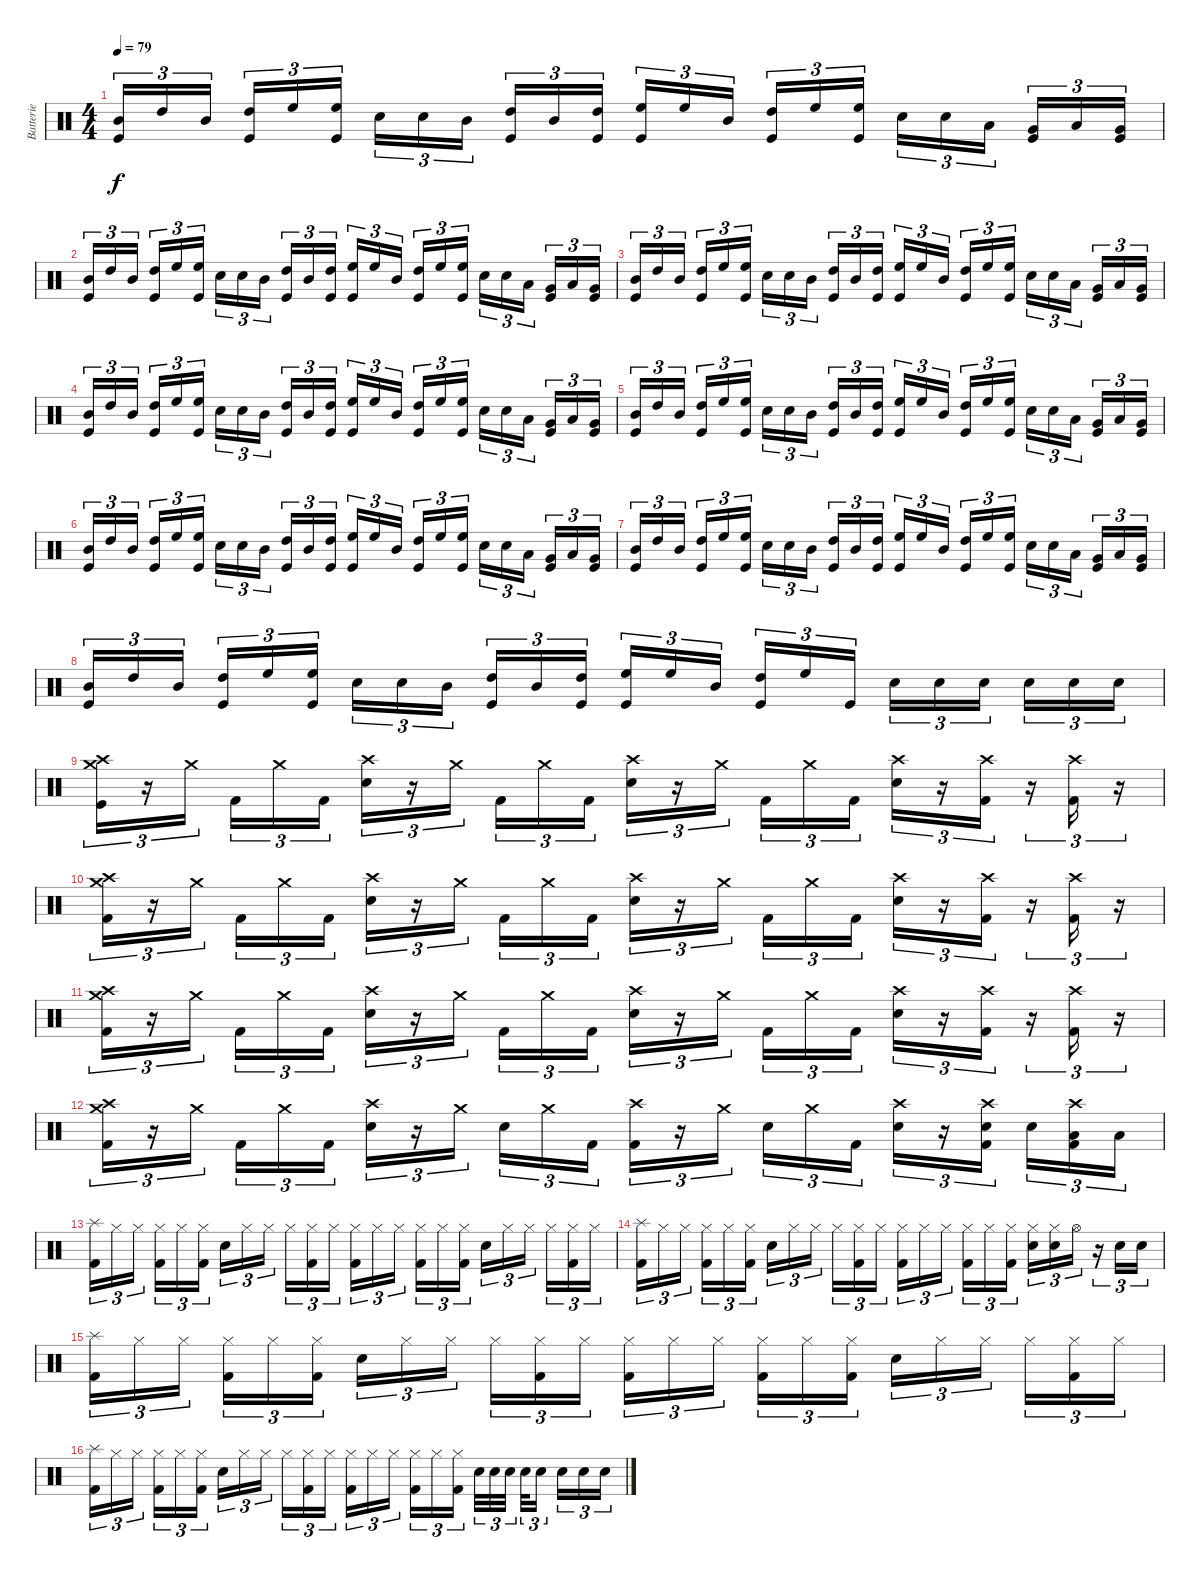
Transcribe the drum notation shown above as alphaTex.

\track ("Batterie" "Batterie") {instrument percussion}
\staff {score}
\articulation defaults
\ts (4 4)
\tempo 79
\clef neutral
\ks c
("Mid Tom (hit)" "Kick (hit)").16{tu (3 2) dy f} "High Tom (hit)".16{tu (3 2)} "Mid Tom (hit)".16{tu (3 2)} ("High Tom (hit)" "Kick (hit)").16{tu (3 2)} "High Floor Tom (hit)".16{tu (3 2)} ("High Floor Tom (hit)" "Kick (hit)").16{tu (3 2)} "Snare (hit) 2".16{tu (3 2)} "Snare (hit) 2".16{tu (3 2)} "Mid Tom (hit)".16{tu (3 2)} ("High Tom (hit)" "Kick (hit)").16{tu (3 2)} "Mid Tom (hit)".16{tu (3 2)} ("High Tom (hit)" "Kick (hit)").16{tu (3 2)} ("High Floor Tom (hit)" "Kick (hit)").16{tu (3 2)} "High Floor Tom (hit)".16{tu (3 2)} "Mid Tom (hit)".16{tu (3 2)} ("High Tom (hit)" "Kick (hit)").16{tu (3 2)} "High Floor Tom (hit)".16{tu (3 2)} ("High Floor Tom (hit)" "Kick (hit)").16{tu (3 2)} "Snare (hit) 2".16{tu (3 2)} "Snare (hit) 2".16{tu (3 2)} "Low Floor Tom (hit)".16{tu (3 2)} ("Very Low Tom (hit)" "Kick (hit)").16{tu (3 2)} "Low Floor Tom (hit)".16{tu (3 2)} ("Very Low Tom (hit)" "Kick (hit)").16{tu (3 2)} |
("Mid Tom (hit)" "Kick (hit)").16{tu (3 2)} "High Tom (hit)".16{tu (3 2)} "Mid Tom (hit)".16{tu (3 2)} ("High Tom (hit)" "Kick (hit)").16{tu (3 2)} "High Floor Tom (hit)".16{tu (3 2)} ("High Floor Tom (hit)" "Kick (hit)").16{tu (3 2)} "Snare (hit) 2".16{tu (3 2)} "Snare (hit) 2".16{tu (3 2)} "Mid Tom (hit)".16{tu (3 2)} ("High Tom (hit)" "Kick (hit)").16{tu (3 2)} "Mid Tom (hit)".16{tu (3 2)} ("High Tom (hit)" "Kick (hit)").16{tu (3 2)} ("High Floor Tom (hit)" "Kick (hit)").16{tu (3 2)} "High Floor Tom (hit)".16{tu (3 2)} "Mid Tom (hit)".16{tu (3 2)} ("High Tom (hit)" "Kick (hit)").16{tu (3 2)} "High Floor Tom (hit)".16{tu (3 2)} ("High Floor Tom (hit)" "Kick (hit)").16{tu (3 2)} "Snare (hit) 2".16{tu (3 2)} "Snare (hit) 2".16{tu (3 2)} "Low Floor Tom (hit)".16{tu (3 2)} ("Very Low Tom (hit)" "Kick (hit)").16{tu (3 2)} "Low Floor Tom (hit)".16{tu (3 2)} ("Very Low Tom (hit)" "Kick (hit)").16{tu (3 2)} |
("Mid Tom (hit)" "Kick (hit)").16{tu (3 2)} "High Tom (hit)".16{tu (3 2)} "Mid Tom (hit)".16{tu (3 2)} ("High Tom (hit)" "Kick (hit)").16{tu (3 2)} "High Floor Tom (hit)".16{tu (3 2)} ("High Floor Tom (hit)" "Kick (hit)").16{tu (3 2)} "Snare (hit) 2".16{tu (3 2)} "Snare (hit) 2".16{tu (3 2)} "Mid Tom (hit)".16{tu (3 2)} ("High Tom (hit)" "Kick (hit)").16{tu (3 2)} "Mid Tom (hit)".16{tu (3 2)} ("High Tom (hit)" "Kick (hit)").16{tu (3 2)} ("High Floor Tom (hit)" "Kick (hit)").16{tu (3 2)} "High Floor Tom (hit)".16{tu (3 2)} "Mid Tom (hit)".16{tu (3 2)} ("High Tom (hit)" "Kick (hit)").16{tu (3 2)} "High Floor Tom (hit)".16{tu (3 2)} ("High Floor Tom (hit)" "Kick (hit)").16{tu (3 2)} "Snare (hit) 2".16{tu (3 2)} "Snare (hit) 2".16{tu (3 2)} "Low Floor Tom (hit)".16{tu (3 2)} ("Very Low Tom (hit)" "Kick (hit)").16{tu (3 2)} "Low Floor Tom (hit)".16{tu (3 2)} ("Very Low Tom (hit)" "Kick (hit)").16{tu (3 2)} |
("Mid Tom (hit)" "Kick (hit)").16{tu (3 2)} "High Tom (hit)".16{tu (3 2)} "Mid Tom (hit)".16{tu (3 2)} ("High Tom (hit)" "Kick (hit)").16{tu (3 2)} "High Floor Tom (hit)".16{tu (3 2)} ("High Floor Tom (hit)" "Kick (hit)").16{tu (3 2)} "Snare (hit) 2".16{tu (3 2)} "Snare (hit) 2".16{tu (3 2)} "Mid Tom (hit)".16{tu (3 2)} ("High Tom (hit)" "Kick (hit)").16{tu (3 2)} "Mid Tom (hit)".16{tu (3 2)} ("High Tom (hit)" "Kick (hit)").16{tu (3 2)} ("High Floor Tom (hit)" "Kick (hit)").16{tu (3 2)} "High Floor Tom (hit)".16{tu (3 2)} "Mid Tom (hit)".16{tu (3 2)} ("High Tom (hit)" "Kick (hit)").16{tu (3 2)} "High Floor Tom (hit)".16{tu (3 2)} ("High Floor Tom (hit)" "Kick (hit)").16{tu (3 2)} "Snare (hit) 2".16{tu (3 2)} "Snare (hit) 2".16{tu (3 2)} "Low Floor Tom (hit)".16{tu (3 2)} ("Very Low Tom (hit)" "Kick (hit)").16{tu (3 2)} "Low Floor Tom (hit)".16{tu (3 2)} ("Very Low Tom (hit)" "Kick (hit)").16{tu (3 2)} |
("Mid Tom (hit)" "Kick (hit)").16{tu (3 2)} "High Tom (hit)".16{tu (3 2)} "Mid Tom (hit)".16{tu (3 2)} ("High Tom (hit)" "Kick (hit)").16{tu (3 2)} "High Floor Tom (hit)".16{tu (3 2)} ("High Floor Tom (hit)" "Kick (hit)").16{tu (3 2)} "Snare (hit) 2".16{tu (3 2)} "Snare (hit) 2".16{tu (3 2)} "Mid Tom (hit)".16{tu (3 2)} ("High Tom (hit)" "Kick (hit)").16{tu (3 2)} "Mid Tom (hit)".16{tu (3 2)} ("High Tom (hit)" "Kick (hit)").16{tu (3 2)} ("High Floor Tom (hit)" "Kick (hit)").16{tu (3 2)} "High Floor Tom (hit)".16{tu (3 2)} "Mid Tom (hit)".16{tu (3 2)} ("High Tom (hit)" "Kick (hit)").16{tu (3 2)} "High Floor Tom (hit)".16{tu (3 2)} ("High Floor Tom (hit)" "Kick (hit)").16{tu (3 2)} "Snare (hit) 2".16{tu (3 2)} "Snare (hit) 2".16{tu (3 2)} "Low Floor Tom (hit)".16{tu (3 2)} ("Very Low Tom (hit)" "Kick (hit)").16{tu (3 2)} "Low Floor Tom (hit)".16{tu (3 2)} ("Very Low Tom (hit)" "Kick (hit)").16{tu (3 2)} |
("Mid Tom (hit)" "Kick (hit)").16{tu (3 2)} "High Tom (hit)".16{tu (3 2)} "Mid Tom (hit)".16{tu (3 2)} ("High Tom (hit)" "Kick (hit)").16{tu (3 2)} "High Floor Tom (hit)".16{tu (3 2)} ("High Floor Tom (hit)" "Kick (hit)").16{tu (3 2)} "Snare (hit) 2".16{tu (3 2)} "Snare (hit) 2".16{tu (3 2)} "Mid Tom (hit)".16{tu (3 2)} ("High Tom (hit)" "Kick (hit)").16{tu (3 2)} "Mid Tom (hit)".16{tu (3 2)} ("High Tom (hit)" "Kick (hit)").16{tu (3 2)} ("High Floor Tom (hit)" "Kick (hit)").16{tu (3 2)} "High Floor Tom (hit)".16{tu (3 2)} "Mid Tom (hit)".16{tu (3 2)} ("High Tom (hit)" "Kick (hit)").16{tu (3 2)} "High Floor Tom (hit)".16{tu (3 2)} ("High Floor Tom (hit)" "Kick (hit)").16{tu (3 2)} "Snare (hit) 2".16{tu (3 2)} "Snare (hit) 2".16{tu (3 2)} "Low Floor Tom (hit)".16{tu (3 2)} ("Very Low Tom (hit)" "Kick (hit)").16{tu (3 2)} "Low Floor Tom (hit)".16{tu (3 2)} ("Very Low Tom (hit)" "Kick (hit)").16{tu (3 2)} |
("Mid Tom (hit)" "Kick (hit)").16{tu (3 2)} "High Tom (hit)".16{tu (3 2)} "Mid Tom (hit)".16{tu (3 2)} ("High Tom (hit)" "Kick (hit)").16{tu (3 2)} "High Floor Tom (hit)".16{tu (3 2)} ("High Floor Tom (hit)" "Kick (hit)").16{tu (3 2)} "Snare (hit) 2".16{tu (3 2)} "Snare (hit) 2".16{tu (3 2)} "Mid Tom (hit)".16{tu (3 2)} ("High Tom (hit)" "Kick (hit)").16{tu (3 2)} "Mid Tom (hit)".16{tu (3 2)} ("High Tom (hit)" "Kick (hit)").16{tu (3 2)} ("High Floor Tom (hit)" "Kick (hit)").16{tu (3 2)} "High Floor Tom (hit)".16{tu (3 2)} "Mid Tom (hit)".16{tu (3 2)} ("High Tom (hit)" "Kick (hit)").16{tu (3 2)} "High Floor Tom (hit)".16{tu (3 2)} ("High Floor Tom (hit)" "Kick (hit)").16{tu (3 2)} "Snare (hit) 2".16{tu (3 2)} "Snare (hit) 2".16{tu (3 2)} "Low Floor Tom (hit)".16{tu (3 2)} ("Very Low Tom (hit)" "Kick (hit)").16{tu (3 2)} "Low Floor Tom (hit)".16{tu (3 2)} ("Very Low Tom (hit)" "Kick (hit)").16{tu (3 2)} |
("Mid Tom (hit)" "Kick (hit)").16{tu (3 2)} "High Tom (hit)".16{tu (3 2)} "Mid Tom (hit)".16{tu (3 2)} ("High Tom (hit)" "Kick (hit)").16{tu (3 2)} "High Floor Tom (hit)".16{tu (3 2)} ("High Floor Tom (hit)" "Kick (hit)").16{tu (3 2)} "Snare (hit) 2".16{tu (3 2)} "Snare (hit) 2".16{tu (3 2)} "Mid Tom (hit)".16{tu (3 2)} ("High Tom (hit)" "Kick (hit)").16{tu (3 2)} "Mid Tom (hit)".16{tu (3 2)} ("High Tom (hit)" "Kick (hit)").16{tu (3 2)} ("High Floor Tom (hit)" "Kick (hit)").16{tu (3 2)} "High Floor Tom (hit)".16{tu (3 2)} "Mid Tom (hit)".16{tu (3 2)} ("High Tom (hit)" "Kick (hit)").16{tu (3 2)} "High Floor Tom (hit)".16{tu (3 2)} "Kick (hit)".16{tu (3 2)} "Snare (hit) 2".16{tu (3 2)} "Snare (hit) 2".16{tu (3 2)} "Snare (hit) 2".16{tu (3 2)} "Snare (hit) 2".16{tu (3 2)} "Snare (hit) 2".16{tu (3 2)} "Snare (hit) 2".16{tu (3 2)} |
("Crash high (hit)" "Crash medium (hit)" "Kick (hit)").16{tu (3 2)} r.16{tu (3 2)} "Crash medium (hit)".16{tu (3 2)} "Kick (hit) 2".16{tu (3 2)} "Crash medium (hit)".16{tu (3 2)} "Kick (hit) 2".16{tu (3 2)} ("Crash high (hit)" "Snare (hit) 2").16{tu (3 2)} r.16{tu (3 2)} "Crash medium (hit)".16{tu (3 2)} "Kick (hit) 2".16{tu (3 2)} "Crash medium (hit)".16{tu (3 2)} "Kick (hit) 2".16{tu (3 2)} ("Crash high (hit)" "Snare (hit) 2").16{tu (3 2)} r.16{tu (3 2)} "Crash medium (hit)".16{tu (3 2)} "Kick (hit) 2".16{tu (3 2)} "Crash medium (hit)".16{tu (3 2)} "Kick (hit) 2".16{tu (3 2)} ("Crash high (hit)" "Snare (hit) 2").16{tu (3 2)} r.16{tu (3 2)} ("Crash high (hit)" "Kick (hit) 2").16{tu (3 2)} r.16{tu (3 2)} ("Crash high (hit)" "Kick (hit) 2").16{tu (3 2)} r.16{tu (3 2)} |
("Crash high (hit)" "Crash medium (hit)" "Kick (hit) 2").16{tu (3 2)} r.16{tu (3 2)} "Crash medium (hit)".16{tu (3 2)} "Kick (hit) 2".16{tu (3 2)} "Crash medium (hit)".16{tu (3 2)} "Kick (hit) 2".16{tu (3 2)} ("Crash high (hit)" "Snare (hit) 2").16{tu (3 2)} r.16{tu (3 2)} "Crash medium (hit)".16{tu (3 2)} "Kick (hit) 2".16{tu (3 2)} "Crash medium (hit)".16{tu (3 2)} "Kick (hit) 2".16{tu (3 2)} ("Crash high (hit)" "Snare (hit) 2").16{tu (3 2)} r.16{tu (3 2)} "Crash medium (hit)".16{tu (3 2)} "Kick (hit) 2".16{tu (3 2)} "Crash medium (hit)".16{tu (3 2)} "Kick (hit) 2".16{tu (3 2)} ("Crash high (hit)" "Snare (hit) 2").16{tu (3 2)} r.16{tu (3 2)} ("Crash high (hit)" "Kick (hit) 2").16{tu (3 2)} r.16{tu (3 2)} ("Crash high (hit)" "Kick (hit) 2").16{tu (3 2)} r.16{tu (3 2)} |
("Crash high (hit)" "Crash medium (hit)" "Kick (hit) 2").16{tu (3 2)} r.16{tu (3 2)} "Crash medium (hit)".16{tu (3 2)} "Kick (hit) 2".16{tu (3 2)} "Crash medium (hit)".16{tu (3 2)} "Kick (hit) 2".16{tu (3 2)} ("Crash high (hit)" "Snare (hit) 2").16{tu (3 2)} r.16{tu (3 2)} "Crash medium (hit)".16{tu (3 2)} "Kick (hit) 2".16{tu (3 2)} "Crash medium (hit)".16{tu (3 2)} "Kick (hit) 2".16{tu (3 2)} ("Crash high (hit)" "Snare (hit) 2").16{tu (3 2)} r.16{tu (3 2)} "Crash medium (hit)".16{tu (3 2)} "Kick (hit) 2".16{tu (3 2)} "Crash medium (hit)".16{tu (3 2)} "Kick (hit) 2".16{tu (3 2)} ("Crash high (hit)" "Snare (hit) 2").16{tu (3 2)} r.16{tu (3 2)} ("Crash high (hit)" "Kick (hit) 2").16{tu (3 2)} r.16{tu (3 2)} ("Crash high (hit)" "Kick (hit) 2").16{tu (3 2)} r.16{tu (3 2)} |
("Crash high (hit)" "Crash medium (hit)" "Kick (hit) 2").16{tu (3 2)} r.16{tu (3 2)} "Crash medium (hit)".16{tu (3 2)} "Kick (hit) 2".16{tu (3 2)} "Crash medium (hit)".16{tu (3 2)} "Kick (hit) 2".16{tu (3 2)} ("Crash high (hit)" "Snare (hit) 2").16{tu (3 2)} r.16{tu (3 2)} "Crash medium (hit)".16{tu (3 2)} "Snare (hit) 2".16{tu (3 2)} "Crash medium (hit)".16{tu (3 2)} "Kick (hit) 2".16{tu (3 2)} ("Crash high (hit)" "Kick (hit) 2").16{tu (3 2)} r.16{tu (3 2)} "Crash medium (hit)".16{tu (3 2)} "Snare (hit) 2".16{tu (3 2)} "Crash medium (hit)".16{tu (3 2)} "Kick (hit) 2".16{tu (3 2)} ("Crash high (hit)" "Snare (hit) 2").16{tu (3 2)} r.16{tu (3 2)} ("Crash high (hit)" "Snare (hit) 2" "Kick (hit) 2").16{tu (3 2)} "Snare (hit) 2".16{tu (3 2)} ("Crash high (hit)" "Low Tom (hit)" "Kick (hit) 2").16{tu (3 2)} "Low Tom (hit)".16{tu (3 2)} |
("Splash (hit)" "Kick (hit) 2").16{tu (3 2)} "Hi-Hat (closed)".16{tu (3 2)} "Hi-Hat (closed)".16{tu (3 2)} ("Hi-Hat (closed)" "Kick (hit) 2").16{tu (3 2)} "Hi-Hat (closed)".16{tu (3 2)} ("Hi-Hat (closed)" "Kick (hit) 2").16{tu (3 2)} "Snare (hit) 2".16{tu (3 2)} "Hi-Hat (closed)".16{tu (3 2)} "Hi-Hat (closed)".16{tu (3 2)} "Hi-Hat (closed)".16{tu (3 2)} ("Hi-Hat (closed)" "Kick (hit) 2").16{tu (3 2)} "Hi-Hat (closed)".16{tu (3 2)} ("Hi-Hat (closed)" "Kick (hit) 2").16{tu (3 2)} "Hi-Hat (closed)".16{tu (3 2)} "Hi-Hat (closed)".16{tu (3 2)} ("Hi-Hat (closed)" "Kick (hit) 2").16{tu (3 2)} "Hi-Hat (closed)".16{tu (3 2)} ("Hi-Hat (closed)" "Kick (hit) 2").16{tu (3 2)} "Snare (hit) 2".16{tu (3 2)} "Hi-Hat (closed)".16{tu (3 2)} "Hi-Hat (closed)".16{tu (3 2)} "Hi-Hat (closed)".16{tu (3 2)} ("Hi-Hat (closed)" "Kick (hit) 2").16{tu (3 2)} "Hi-Hat (closed)".16{tu (3 2)} |
("Splash (hit)" "Kick (hit) 2").16{tu (3 2)} "Hi-Hat (closed)".16{tu (3 2)} "Hi-Hat (closed)".16{tu (3 2)} ("Hi-Hat (closed)" "Kick (hit) 2").16{tu (3 2)} "Hi-Hat (closed)".16{tu (3 2)} ("Hi-Hat (closed)" "Kick (hit) 2").16{tu (3 2)} "Snare (hit) 2".16{tu (3 2)} "Hi-Hat (closed)".16{tu (3 2)} "Hi-Hat (closed)".16{tu (3 2)} "Hi-Hat (closed)".16{tu (3 2)} ("Hi-Hat (closed)" "Kick (hit) 2").16{tu (3 2)} "Hi-Hat (closed)".16{tu (3 2)} ("Hi-Hat (closed)" "Kick (hit) 2").16{tu (3 2)} "Hi-Hat (closed)".16{tu (3 2)} "Hi-Hat (closed)".16{tu (3 2)} ("Hi-Hat (closed)" "Kick (hit) 2").16{tu (3 2)} "Hi-Hat (closed)".16{tu (3 2)} ("Hi-Hat (closed)" "Kick (hit) 2").16{tu (3 2)} ("Hi-Hat (closed)" "Snare (hit) 2").16{tu (3 2)} ("Hi-Hat (closed)" "Snare (hit) 2").16{tu (3 2)} "Hi-Hat (open)".16{tu (3 2)} r.16{tu (3 2)} "Snare (hit) 2".16{tu (3 2)} "Snare (hit) 2".16{tu (3 2)} |
("Splash (hit)" "Kick (hit) 2").16{tu (3 2)} "Hi-Hat (closed)".16{tu (3 2)} "Hi-Hat (closed)".16{tu (3 2)} ("Hi-Hat (closed)" "Kick (hit) 2").16{tu (3 2)} "Hi-Hat (closed)".16{tu (3 2)} ("Hi-Hat (closed)" "Kick (hit) 2").16{tu (3 2)} "Snare (hit) 2".16{tu (3 2)} "Hi-Hat (closed)".16{tu (3 2)} "Hi-Hat (closed)".16{tu (3 2)} "Hi-Hat (closed)".16{tu (3 2)} ("Hi-Hat (closed)" "Kick (hit) 2").16{tu (3 2)} "Hi-Hat (closed)".16{tu (3 2)} ("Hi-Hat (closed)" "Kick (hit) 2").16{tu (3 2)} "Hi-Hat (closed)".16{tu (3 2)} "Hi-Hat (closed)".16{tu (3 2)} ("Hi-Hat (closed)" "Kick (hit) 2").16{tu (3 2)} "Hi-Hat (closed)".16{tu (3 2)} ("Hi-Hat (closed)" "Kick (hit) 2").16{tu (3 2)} "Snare (hit) 2".16{tu (3 2)} "Hi-Hat (closed)".16{tu (3 2)} "Hi-Hat (closed)".16{tu (3 2)} "Hi-Hat (closed)".16{tu (3 2)} ("Hi-Hat (closed)" "Kick (hit) 2").16{tu (3 2)} "Hi-Hat (closed)".16{tu (3 2)} |
("Splash (hit)" "Kick (hit) 2").16{tu (3 2)} "Hi-Hat (closed)".16{tu (3 2)} "Hi-Hat (closed)".16{tu (3 2)} ("Hi-Hat (closed)" "Kick (hit) 2").16{tu (3 2)} "Hi-Hat (closed)".16{tu (3 2)} ("Hi-Hat (closed)" "Kick (hit) 2").16{tu (3 2)} "Snare (hit) 2".16{tu (3 2)} "Hi-Hat (closed)".16{tu (3 2)} "Hi-Hat (closed)".16{tu (3 2)} "Hi-Hat (closed)".16{tu (3 2)} ("Hi-Hat (closed)" "Kick (hit) 2").16{tu (3 2)} "Hi-Hat (closed)".16{tu (3 2)} ("Hi-Hat (closed)" "Kick (hit) 2").16{tu (3 2)} "Hi-Hat (closed)".16{tu (3 2)} "Hi-Hat (closed)".16{tu (3 2)} ("Hi-Hat (closed)" "Kick (hit) 2").16{tu (3 2)} "Hi-Hat (closed)".16{tu (3 2)} ("Hi-Hat (closed)" "Kick (hit) 2").16{tu (3 2)} "Snare (hit) 2".32{tu (3 2)} "Snare (hit) 2".32{tu (3 2)} "Snare (hit) 2".32{tu (3 2)} "Snare (hit) 2".32{tu (3 2)} "Snare (hit) 2".16{tu (3 2)} "Snare (hit) 2".16{tu (3 2)} "Snare (hit) 2".16{tu (3 2)} "Snare (hit) 2".16{tu (3 2)}
